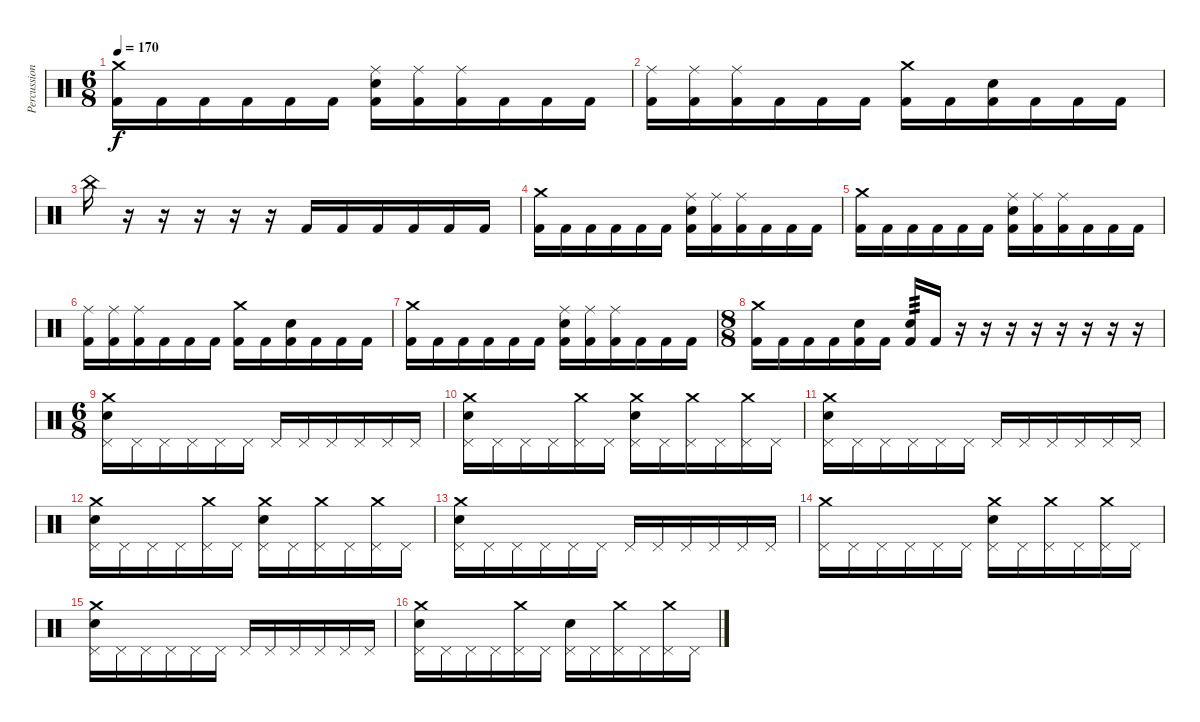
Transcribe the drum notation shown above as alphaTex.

\track ("Percussions" "Percussion") {instrument percussion}
\staff {score}
\articulation defaults
\ts (6 8)
\tempo 170
\clef neutral
\ks c
("Crash medium (hit)" "Kick (hit) 2").16{dy f} "Kick (hit) 2".16 "Kick (hit) 2".16 "Kick (hit) 2".16 "Kick (hit) 2".16 "Kick (hit) 2".16 ("Snare (hit) 2" "Ride (middle)" "Kick (hit) 2").16 ("Ride (middle)" "Kick (hit) 2").16 ("Ride (middle)" "Kick (hit) 2").16 "Kick (hit) 2".16 "Kick (hit) 2".16 "Kick (hit) 2".16 |
("Ride (middle)" "Kick (hit) 2").16 ("Ride (middle)" "Kick (hit) 2").16 ("Ride (middle)" "Kick (hit) 2").16 "Kick (hit) 2".16 "Kick (hit) 2".16 "Kick (hit) 2".16 ("Crash medium (hit)" "Kick (hit) 2").16 "Kick (hit) 2".16 ("Snare (hit) 2" "Kick (hit) 2").16 "Kick (hit) 2".16 "Kick (hit) 2".16 "Kick (hit) 2".16 |
"China (hit)".16 r.16 r.16 r.16 r.16 r.16 "Kick (hit) 2".16 "Kick (hit) 2".16 "Kick (hit) 2".16 "Kick (hit) 2".16 "Kick (hit) 2".16 "Kick (hit) 2".16 |
("Crash medium (hit)" "Kick (hit) 2").16 "Kick (hit) 2".16 "Kick (hit) 2".16 "Kick (hit) 2".16 "Kick (hit) 2".16 "Kick (hit) 2".16 ("Snare (hit) 2" "Ride (middle)" "Kick (hit) 2").16 ("Ride (middle)" "Kick (hit) 2").16 ("Ride (middle)" "Kick (hit) 2").16 "Kick (hit) 2".16 "Kick (hit) 2".16 "Kick (hit) 2".16 |
("Crash medium (hit)" "Kick (hit) 2").16 "Kick (hit) 2".16 "Kick (hit) 2".16 "Kick (hit) 2".16 "Kick (hit) 2".16 "Kick (hit) 2".16 ("Snare (hit) 2" "Ride (middle)" "Kick (hit) 2").16 ("Ride (middle)" "Kick (hit) 2").16 ("Ride (middle)" "Kick (hit) 2").16 "Kick (hit) 2".16 "Kick (hit) 2".16 "Kick (hit) 2".16 |
("Ride (middle)" "Kick (hit) 2").16 ("Ride (middle)" "Kick (hit) 2").16 ("Ride (middle)" "Kick (hit) 2").16 "Kick (hit) 2".16 "Kick (hit) 2".16 "Kick (hit) 2".16 ("Crash medium (hit)" "Kick (hit) 2").16 "Kick (hit) 2".16 ("Snare (hit) 2" "Kick (hit) 2").16 "Kick (hit) 2".16 "Kick (hit) 2".16 "Kick (hit) 2".16 |
("Crash medium (hit)" "Kick (hit) 2").16 "Kick (hit) 2".16 "Kick (hit) 2".16 "Kick (hit) 2".16 "Kick (hit) 2".16 "Kick (hit) 2".16 ("Snare (hit) 2" "Ride (middle)" "Kick (hit) 2").16 ("Ride (middle)" "Kick (hit) 2").16 ("Ride (middle)" "Kick (hit) 2").16 "Kick (hit) 2".16 "Kick (hit) 2".16 "Kick (hit) 2".16 |
\ts (8 8)
("Crash medium (hit)" "Kick (hit) 2").16 "Kick (hit) 2".16 "Kick (hit) 2".16 "Kick (hit) 2".16 ("Snare (hit) 2" "Kick (hit) 2").16 "Kick (hit) 2".16 ("Snare (hit) 2" "Kick (hit) 2").16{tp 3} "Kick (hit) 2".16 r.16 r.16 r.16 r.16 r.16 r.16 r.16 r.16 |
\ts (6 8)
("Snare (hit) 2" "Crash medium (hit)" "Pedal Hi-Hat (hit)").16 "Pedal Hi-Hat (hit)".16 "Pedal Hi-Hat (hit)".16 "Pedal Hi-Hat (hit)".16 "Pedal Hi-Hat (hit)".16 "Pedal Hi-Hat (hit)".16 "Pedal Hi-Hat (hit)".16 "Pedal Hi-Hat (hit)".16 "Pedal Hi-Hat (hit)".16 "Pedal Hi-Hat (hit)".16 "Pedal Hi-Hat (hit)".16 "Pedal Hi-Hat (hit)".16 |
("Snare (hit) 2" "Crash medium (hit)" "Pedal Hi-Hat (hit)").16 "Pedal Hi-Hat (hit)".16 "Pedal Hi-Hat (hit)".16 "Pedal Hi-Hat (hit)".16 ("Crash medium (hit)" "Pedal Hi-Hat (hit)").16 "Pedal Hi-Hat (hit)".16 ("Snare (hit) 2" "Crash medium (hit)" "Pedal Hi-Hat (hit)").16 "Pedal Hi-Hat (hit)".16 ("Crash medium (hit)" "Pedal Hi-Hat (hit)").16 "Pedal Hi-Hat (hit)".16 ("Crash medium (hit)" "Pedal Hi-Hat (hit)").16 "Pedal Hi-Hat (hit)".16 |
("Snare (hit) 2" "Crash medium (hit)" "Pedal Hi-Hat (hit)").16 "Pedal Hi-Hat (hit)".16 "Pedal Hi-Hat (hit)".16 "Pedal Hi-Hat (hit)".16 "Pedal Hi-Hat (hit)".16 "Pedal Hi-Hat (hit)".16 "Pedal Hi-Hat (hit)".16 "Pedal Hi-Hat (hit)".16 "Pedal Hi-Hat (hit)".16 "Pedal Hi-Hat (hit)".16 "Pedal Hi-Hat (hit)".16 "Pedal Hi-Hat (hit)".16 |
("Snare (hit) 2" "Crash medium (hit)" "Pedal Hi-Hat (hit)").16 "Pedal Hi-Hat (hit)".16 "Pedal Hi-Hat (hit)".16 "Pedal Hi-Hat (hit)".16 ("Crash medium (hit)" "Pedal Hi-Hat (hit)").16 "Pedal Hi-Hat (hit)".16 ("Snare (hit) 2" "Crash medium (hit)" "Pedal Hi-Hat (hit)").16 "Pedal Hi-Hat (hit)".16 ("Crash medium (hit)" "Pedal Hi-Hat (hit)").16 "Pedal Hi-Hat (hit)".16 ("Crash medium (hit)" "Pedal Hi-Hat (hit)").16 "Pedal Hi-Hat (hit)".16 |
("Snare (hit) 2" "Crash medium (hit)" "Pedal Hi-Hat (hit)").16 "Pedal Hi-Hat (hit)".16 "Pedal Hi-Hat (hit)".16 "Pedal Hi-Hat (hit)".16 "Pedal Hi-Hat (hit)".16 "Pedal Hi-Hat (hit)".16 "Pedal Hi-Hat (hit)".16 "Pedal Hi-Hat (hit)".16 "Pedal Hi-Hat (hit)".16 "Pedal Hi-Hat (hit)".16 "Pedal Hi-Hat (hit)".16 "Pedal Hi-Hat (hit)".16 |
("Crash medium (hit)" "Pedal Hi-Hat (hit)").16 "Pedal Hi-Hat (hit)".16 "Pedal Hi-Hat (hit)".16 "Pedal Hi-Hat (hit)".16 "Pedal Hi-Hat (hit)".16 "Pedal Hi-Hat (hit)".16 ("Snare (hit) 2" "Crash medium (hit)" "Pedal Hi-Hat (hit)").16 "Pedal Hi-Hat (hit)".16 ("Crash medium (hit)" "Pedal Hi-Hat (hit)").16 "Pedal Hi-Hat (hit)".16 ("Crash medium (hit)" "Pedal Hi-Hat (hit)").16 "Pedal Hi-Hat (hit)".16 |
("Snare (hit) 2" "Crash medium (hit)" "Pedal Hi-Hat (hit)").16 "Pedal Hi-Hat (hit)".16 "Pedal Hi-Hat (hit)".16 "Pedal Hi-Hat (hit)".16 "Pedal Hi-Hat (hit)".16 "Pedal Hi-Hat (hit)".16 "Pedal Hi-Hat (hit)".16 "Pedal Hi-Hat (hit)".16 "Pedal Hi-Hat (hit)".16 "Pedal Hi-Hat (hit)".16 "Pedal Hi-Hat (hit)".16 "Pedal Hi-Hat (hit)".16 |
("Snare (hit) 2" "Crash medium (hit)" "Pedal Hi-Hat (hit)").16 "Pedal Hi-Hat (hit)".16 "Pedal Hi-Hat (hit)".16 "Pedal Hi-Hat (hit)".16 ("Crash medium (hit)" "Pedal Hi-Hat (hit)").16 "Pedal Hi-Hat (hit)".16 ("Snare (hit) 2" "Pedal Hi-Hat (hit)").16 "Pedal Hi-Hat (hit)".16 ("Crash medium (hit)" "Pedal Hi-Hat (hit)").16 "Pedal Hi-Hat (hit)".16 ("Crash medium (hit)" "Pedal Hi-Hat (hit)").16 "Pedal Hi-Hat (hit)".16
